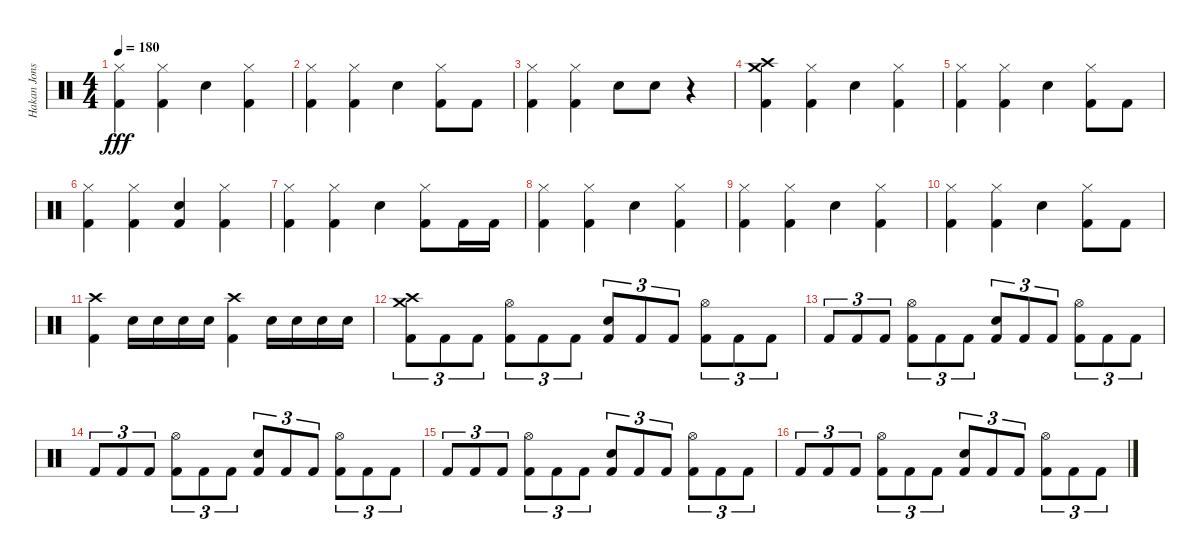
\track ("Hakan Jonsson" "Hakan Jons") {instrument percussion}
\staff {score}
\articulation defaults
\ts (4 4)
\tempo 180
\clef neutral
\ks c
("Hi-Hat (closed)" "Kick (hit) 2").4{dy fff} ("Hi-Hat (closed)" "Kick (hit) 2").4 "Electric Snare (hit)".4 ("Hi-Hat (closed)" "Kick (hit) 2").4 |
("Hi-Hat (closed)" "Kick (hit) 2").4 ("Hi-Hat (closed)" "Kick (hit) 2").4 "Electric Snare (hit)".4 ("Hi-Hat (closed)" "Kick (hit) 2").8 "Kick (hit) 2".8 |
("Hi-Hat (closed)" "Kick (hit) 2").4 ("Hi-Hat (closed)" "Kick (hit) 2").4 "Electric Snare (hit)".8 "Electric Snare (hit)".8 r.4 |
("Crash high (hit)" "Crash medium (hit)" "Kick (hit) 2").4 ("Hi-Hat (closed)" "Kick (hit) 2").4 "Electric Snare (hit)".4 ("Hi-Hat (closed)" "Kick (hit) 2").4 |
("Hi-Hat (closed)" "Kick (hit) 2").4 ("Hi-Hat (closed)" "Kick (hit) 2").4 "Electric Snare (hit)".4 ("Hi-Hat (closed)" "Kick (hit) 2").8 "Kick (hit) 2".8 |
("Hi-Hat (closed)" "Kick (hit) 2").4 ("Hi-Hat (closed)" "Kick (hit) 2").4 ("Electric Snare (hit)" "Kick (hit) 2").4 ("Hi-Hat (closed)" "Kick (hit) 2").4 |
("Hi-Hat (closed)" "Kick (hit) 2").4 ("Hi-Hat (closed)" "Kick (hit) 2").4 "Electric Snare (hit)".4 ("Hi-Hat (closed)" "Kick (hit) 2").8 "Kick (hit) 2".16 "Kick (hit) 2".16 |
("Hi-Hat (closed)" "Kick (hit) 2").4 ("Hi-Hat (closed)" "Kick (hit) 2").4 "Electric Snare (hit)".4 ("Hi-Hat (closed)" "Kick (hit) 2").4 |
("Hi-Hat (closed)" "Kick (hit) 2").4 ("Hi-Hat (closed)" "Kick (hit) 2").4 "Electric Snare (hit)".4 ("Hi-Hat (closed)" "Kick (hit) 2").4 |
("Hi-Hat (closed)" "Kick (hit) 2").4 ("Hi-Hat (closed)" "Kick (hit) 2").4 "Electric Snare (hit)".4 ("Hi-Hat (closed)" "Kick (hit) 2").8 "Kick (hit) 2".8 |
("Crash high (hit)" "Kick (hit) 2").4 "Electric Snare (hit)".16 "Electric Snare (hit)".16 "Electric Snare (hit)".16 "Electric Snare (hit)".16 ("Crash high (hit)" "Kick (hit) 2").4 "Electric Snare (hit)".16 "Electric Snare (hit)".16 "Electric Snare (hit)".16 "Electric Snare (hit)".16 |
("Crash high (hit)" "Crash medium (hit)" "Kick (hit) 2").8{tu (3 2)} "Kick (hit) 2".8{tu (3 2)} "Kick (hit) 2".8{tu (3 2)} ("Hi-Hat (open)" "Kick (hit) 2").8{tu (3 2)} "Kick (hit) 2".8{tu (3 2)} "Kick (hit) 2".8{tu (3 2)} ("Electric Snare (hit)" "Kick (hit) 2").8{tu (3 2)} "Kick (hit) 2".8{tu (3 2)} "Kick (hit) 2".8{tu (3 2)} ("Hi-Hat (open)" "Kick (hit) 2").8{tu (3 2)} "Kick (hit) 2".8{tu (3 2)} "Kick (hit) 2".8{tu (3 2)} |
"Kick (hit) 2".8{tu (3 2)} "Kick (hit) 2".8{tu (3 2)} "Kick (hit) 2".8{tu (3 2)} ("Hi-Hat (open)" "Kick (hit) 2").8{tu (3 2)} "Kick (hit) 2".8{tu (3 2)} "Kick (hit) 2".8{tu (3 2)} ("Electric Snare (hit)" "Kick (hit) 2").8{tu (3 2)} "Kick (hit) 2".8{tu (3 2)} "Kick (hit) 2".8{tu (3 2)} ("Hi-Hat (open)" "Kick (hit) 2").8{tu (3 2)} "Kick (hit) 2".8{tu (3 2)} "Kick (hit) 2".8{tu (3 2)} |
"Kick (hit) 2".8{tu (3 2)} "Kick (hit) 2".8{tu (3 2)} "Kick (hit) 2".8{tu (3 2)} ("Hi-Hat (open)" "Kick (hit) 2").8{tu (3 2)} "Kick (hit) 2".8{tu (3 2)} "Kick (hit) 2".8{tu (3 2)} ("Electric Snare (hit)" "Kick (hit) 2").8{tu (3 2)} "Kick (hit) 2".8{tu (3 2)} "Kick (hit) 2".8{tu (3 2)} ("Hi-Hat (open)" "Kick (hit) 2").8{tu (3 2)} "Kick (hit) 2".8{tu (3 2)} "Kick (hit) 2".8{tu (3 2)} |
"Kick (hit) 2".8{tu (3 2)} "Kick (hit) 2".8{tu (3 2)} "Kick (hit) 2".8{tu (3 2)} ("Hi-Hat (open)" "Kick (hit) 2").8{tu (3 2)} "Kick (hit) 2".8{tu (3 2)} "Kick (hit) 2".8{tu (3 2)} ("Electric Snare (hit)" "Kick (hit) 2").8{tu (3 2)} "Kick (hit) 2".8{tu (3 2)} "Kick (hit) 2".8{tu (3 2)} ("Hi-Hat (open)" "Kick (hit) 2").8{tu (3 2)} "Kick (hit) 2".8{tu (3 2)} "Kick (hit) 2".8{tu (3 2)} |
"Kick (hit) 2".8{tu (3 2)} "Kick (hit) 2".8{tu (3 2)} "Kick (hit) 2".8{tu (3 2)} ("Hi-Hat (open)" "Kick (hit) 2").8{tu (3 2)} "Kick (hit) 2".8{tu (3 2)} "Kick (hit) 2".8{tu (3 2)} ("Electric Snare (hit)" "Kick (hit) 2").8{tu (3 2)} "Kick (hit) 2".8{tu (3 2)} "Kick (hit) 2".8{tu (3 2)} ("Hi-Hat (open)" "Kick (hit) 2").8{tu (3 2)} "Kick (hit) 2".8{tu (3 2)} "Kick (hit) 2".8{tu (3 2)}
